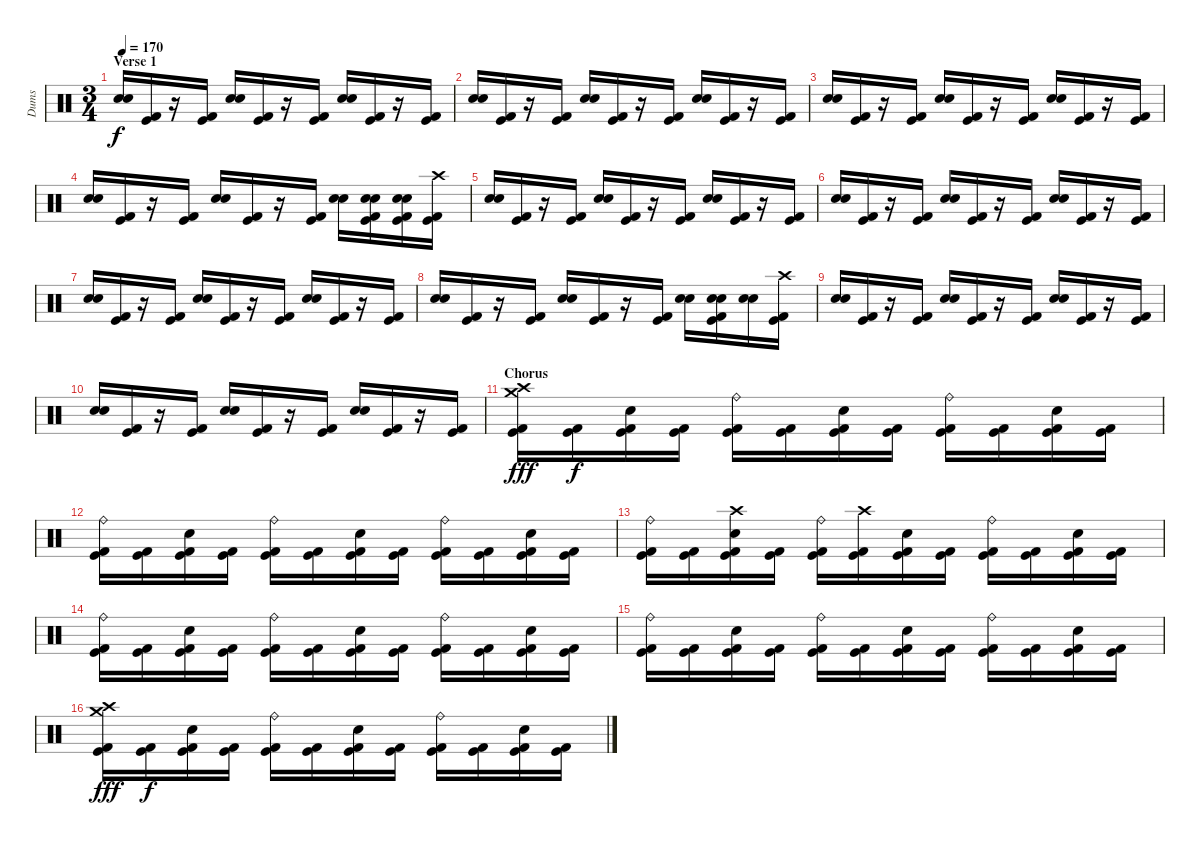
\track ("Dums" "Dums") {instrument percussion}
\staff {score}
\articulation defaults
\ts (3 4)
\section ("" "Verse 1")
\tempo 170
\clef neutral
\ks c
("Snare (hit) 2" "Electric Snare (hit)").16{dy f} ("Kick (hit)" "Kick (hit) 2").16 r.16 ("Kick (hit)" "Kick (hit) 2").16 ("Snare (hit) 2" "Electric Snare (hit)").16 ("Kick (hit)" "Kick (hit) 2").16 r.16 ("Kick (hit)" "Kick (hit) 2").16 ("Snare (hit) 2" "Electric Snare (hit)").16 ("Kick (hit)" "Kick (hit) 2").16 r.16 ("Kick (hit)" "Kick (hit) 2").16 |
("Snare (hit) 2" "Electric Snare (hit)").16 ("Kick (hit)" "Kick (hit) 2").16 r.16 ("Kick (hit)" "Kick (hit) 2").16 ("Snare (hit) 2" "Electric Snare (hit)").16 ("Kick (hit)" "Kick (hit) 2").16 r.16 ("Kick (hit)" "Kick (hit) 2").16 ("Snare (hit) 2" "Electric Snare (hit)").16 ("Kick (hit)" "Kick (hit) 2").16 r.16 ("Kick (hit)" "Kick (hit) 2").16 |
("Snare (hit) 2" "Electric Snare (hit)").16 ("Kick (hit)" "Kick (hit) 2").16 r.16 ("Kick (hit)" "Kick (hit) 2").16 ("Snare (hit) 2" "Electric Snare (hit)").16 ("Kick (hit)" "Kick (hit) 2").16 r.16 ("Kick (hit)" "Kick (hit) 2").16 ("Snare (hit) 2" "Electric Snare (hit)").16 ("Kick (hit)" "Kick (hit) 2").16 r.16 ("Kick (hit)" "Kick (hit) 2").16 |
("Snare (hit) 2" "Electric Snare (hit)").16 ("Kick (hit)" "Kick (hit) 2").16 r.16 ("Kick (hit)" "Kick (hit) 2").16 ("Snare (hit) 2" "Electric Snare (hit)").16 ("Kick (hit)" "Kick (hit) 2").16 r.16 ("Kick (hit)" "Kick (hit) 2").16 ("Snare (hit) 2" "Electric Snare (hit)").16 ("Snare (hit) 2" "Electric Snare (hit)" "Kick (hit)" "Kick (hit) 2").16 ("Snare (hit) 2" "Electric Snare (hit)" "Kick (hit)" "Kick (hit) 2").16 ("Crash high (hit)" "Kick (hit)" "Kick (hit) 2").16 |
("Snare (hit) 2" "Electric Snare (hit)").16 ("Kick (hit)" "Kick (hit) 2").16 r.16 ("Kick (hit)" "Kick (hit) 2").16 ("Snare (hit) 2" "Electric Snare (hit)").16 ("Kick (hit)" "Kick (hit) 2").16 r.16 ("Kick (hit)" "Kick (hit) 2").16 ("Snare (hit) 2" "Electric Snare (hit)").16 ("Kick (hit)" "Kick (hit) 2").16 r.16 ("Kick (hit)" "Kick (hit) 2").16 |
("Snare (hit) 2" "Electric Snare (hit)").16 ("Kick (hit)" "Kick (hit) 2").16 r.16 ("Kick (hit)" "Kick (hit) 2").16 ("Snare (hit) 2" "Electric Snare (hit)").16 ("Kick (hit)" "Kick (hit) 2").16 r.16 ("Kick (hit)" "Kick (hit) 2").16 ("Snare (hit) 2" "Electric Snare (hit)").16 ("Kick (hit)" "Kick (hit) 2").16 r.16 ("Kick (hit)" "Kick (hit) 2").16 |
("Snare (hit) 2" "Electric Snare (hit)").16 ("Kick (hit)" "Kick (hit) 2").16 r.16 ("Kick (hit)" "Kick (hit) 2").16 ("Snare (hit) 2" "Electric Snare (hit)").16 ("Kick (hit)" "Kick (hit) 2").16 r.16 ("Kick (hit)" "Kick (hit) 2").16 ("Snare (hit) 2" "Electric Snare (hit)").16 ("Kick (hit)" "Kick (hit) 2").16 r.16 ("Kick (hit)" "Kick (hit) 2").16 |
("Snare (hit) 2" "Electric Snare (hit)").16 ("Kick (hit)" "Kick (hit) 2").16 r.16 ("Kick (hit)" "Kick (hit) 2").16 ("Snare (hit) 2" "Electric Snare (hit)").16 ("Kick (hit)" "Kick (hit) 2").16 r.16 ("Kick (hit)" "Kick (hit) 2").16 ("Snare (hit) 2" "Electric Snare (hit)").16 ("Snare (hit) 2" "Electric Snare (hit)" "Kick (hit)" "Kick (hit) 2").16 ("Snare (hit) 2" "Electric Snare (hit)").16 ("Crash high (hit)" "Kick (hit)" "Kick (hit) 2").16 |
("Snare (hit) 2" "Electric Snare (hit)").16 ("Kick (hit)" "Kick (hit) 2").16 r.16 ("Kick (hit)" "Kick (hit) 2").16 ("Snare (hit) 2" "Electric Snare (hit)").16 ("Kick (hit)" "Kick (hit) 2").16 r.16 ("Kick (hit)" "Kick (hit) 2").16 ("Snare (hit) 2" "Electric Snare (hit)").16 ("Kick (hit)" "Kick (hit) 2").16 r.16 ("Kick (hit)" "Kick (hit) 2").16 |
("Snare (hit) 2" "Electric Snare (hit)").16 ("Kick (hit)" "Kick (hit) 2").16 r.16 ("Kick (hit)" "Kick (hit) 2").16 ("Snare (hit) 2" "Electric Snare (hit)").16 ("Kick (hit)" "Kick (hit) 2").16 r.16 ("Kick (hit)" "Kick (hit) 2").16 ("Snare (hit) 2" "Electric Snare (hit)").16 ("Kick (hit)" "Kick (hit) 2").16 r.16 ("Kick (hit)" "Kick (hit) 2").16 |
\section ("" "Chorus")
("Crash high (hit)" "Crash medium (hit)" "Kick (hit)" "Kick (hit) 2").16{dy fff} ("Kick (hit)" "Kick (hit) 2").16{dy f} ("Electric Snare (hit)" "Kick (hit)" "Kick (hit) 2").16 ("Kick (hit)" "Kick (hit) 2").16 ("Ride (bell)" "Kick (hit)" "Kick (hit) 2").16 ("Kick (hit)" "Kick (hit) 2").16 ("Electric Snare (hit)" "Kick (hit)" "Kick (hit) 2").16 ("Kick (hit)" "Kick (hit) 2").16 ("Ride (bell)" "Kick (hit)" "Kick (hit) 2").16 ("Kick (hit)" "Kick (hit) 2").16 ("Electric Snare (hit)" "Kick (hit)" "Kick (hit) 2").16 ("Kick (hit)" "Kick (hit) 2").16 |
("Ride (bell)" "Kick (hit)" "Kick (hit) 2").16 ("Kick (hit)" "Kick (hit) 2").16 ("Electric Snare (hit)" "Kick (hit)" "Kick (hit) 2").16 ("Kick (hit)" "Kick (hit) 2").16 ("Ride (bell)" "Kick (hit)" "Kick (hit) 2").16 ("Kick (hit)" "Kick (hit) 2").16 ("Electric Snare (hit)" "Kick (hit)" "Kick (hit) 2").16 ("Kick (hit)" "Kick (hit) 2").16 ("Ride (bell)" "Kick (hit)" "Kick (hit) 2").16 ("Kick (hit)" "Kick (hit) 2").16 ("Electric Snare (hit)" "Kick (hit)" "Kick (hit) 2").16 ("Kick (hit)" "Kick (hit) 2").16 |
("Ride (bell)" "Kick (hit)" "Kick (hit) 2").16 ("Kick (hit)" "Kick (hit) 2").16 ("Crash high (hit)" "Electric Snare (hit)" "Kick (hit)" "Kick (hit) 2").16 ("Kick (hit)" "Kick (hit) 2").16 ("Ride (bell)" "Kick (hit)" "Kick (hit) 2").16 ("Crash high (hit)" "Kick (hit)" "Kick (hit) 2").16 ("Electric Snare (hit)" "Kick (hit)" "Kick (hit) 2").16 ("Kick (hit)" "Kick (hit) 2").16 ("Ride (bell)" "Kick (hit)" "Kick (hit) 2").16 ("Kick (hit)" "Kick (hit) 2").16 ("Electric Snare (hit)" "Kick (hit)" "Kick (hit) 2").16 ("Kick (hit)" "Kick (hit) 2").16 |
("Ride (bell)" "Kick (hit)" "Kick (hit) 2").16 ("Kick (hit)" "Kick (hit) 2").16 ("Electric Snare (hit)" "Kick (hit)" "Kick (hit) 2").16 ("Kick (hit)" "Kick (hit) 2").16 ("Ride (bell)" "Kick (hit)" "Kick (hit) 2").16 ("Kick (hit)" "Kick (hit) 2").16 ("Electric Snare (hit)" "Kick (hit)" "Kick (hit) 2").16 ("Kick (hit)" "Kick (hit) 2").16 ("Ride (bell)" "Kick (hit)" "Kick (hit) 2").16 ("Kick (hit)" "Kick (hit) 2").16 ("Electric Snare (hit)" "Kick (hit)" "Kick (hit) 2").16 ("Kick (hit)" "Kick (hit) 2").16 |
("Ride (bell)" "Kick (hit)" "Kick (hit) 2").16 ("Kick (hit)" "Kick (hit) 2").16 ("Electric Snare (hit)" "Kick (hit)" "Kick (hit) 2").16 ("Kick (hit)" "Kick (hit) 2").16 ("Ride (bell)" "Kick (hit)" "Kick (hit) 2").16 ("Kick (hit)" "Kick (hit) 2").16 ("Electric Snare (hit)" "Kick (hit)" "Kick (hit) 2").16 ("Kick (hit)" "Kick (hit) 2").16 ("Ride (bell)" "Kick (hit)" "Kick (hit) 2").16 ("Kick (hit)" "Kick (hit) 2").16 ("Electric Snare (hit)" "Kick (hit)" "Kick (hit) 2").16 ("Kick (hit)" "Kick (hit) 2").16 |
("Crash high (hit)" "Crash medium (hit)" "Kick (hit)" "Kick (hit) 2").16{dy fff} ("Kick (hit)" "Kick (hit) 2").16{dy f} ("Electric Snare (hit)" "Kick (hit)" "Kick (hit) 2").16 ("Kick (hit)" "Kick (hit) 2").16 ("Ride (bell)" "Kick (hit)" "Kick (hit) 2").16 ("Kick (hit)" "Kick (hit) 2").16 ("Electric Snare (hit)" "Kick (hit)" "Kick (hit) 2").16 ("Kick (hit)" "Kick (hit) 2").16 ("Ride (bell)" "Kick (hit)" "Kick (hit) 2").16 ("Kick (hit)" "Kick (hit) 2").16 ("Electric Snare (hit)" "Kick (hit)" "Kick (hit) 2").16 ("Kick (hit)" "Kick (hit) 2").16
